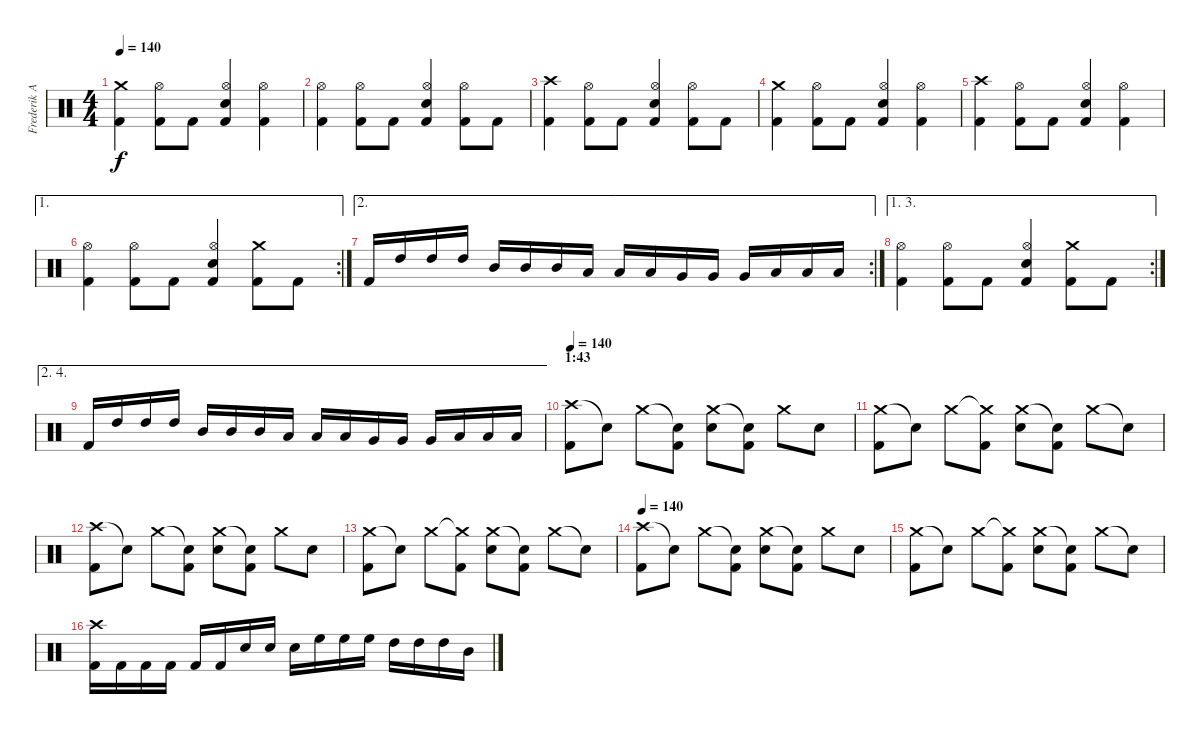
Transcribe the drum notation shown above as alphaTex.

\track ("Frederik Anderson" "Frederik A") {instrument percussion}
\staff {score}
\articulation defaults
\ts (4 4)
\tempo 140
\clef neutral
\ks c
("Crash medium (hit)" "Kick (hit) 2").4{dy f} ("Hi-Hat (open)" "Kick (hit) 2").8 "Kick (hit) 2".8 ("Hi-Hat (open)" "Electric Snare (hit)" "Kick (hit) 2").4 ("Hi-Hat (open)" "Kick (hit) 2").4 |
("Hi-Hat (open)" "Kick (hit) 2").4 ("Hi-Hat (open)" "Kick (hit) 2").8 "Kick (hit) 2".8 ("Hi-Hat (open)" "Electric Snare (hit)" "Kick (hit) 2").4 ("Hi-Hat (open)" "Kick (hit) 2").8 "Kick (hit) 2".8 |
("Crash high (hit)" "Kick (hit) 2").4 ("Hi-Hat (open)" "Kick (hit) 2").8 "Kick (hit) 2".8 ("Hi-Hat (open)" "Electric Snare (hit)" "Kick (hit) 2").4 ("Hi-Hat (open)" "Kick (hit) 2").8 "Kick (hit) 2".8 |
("Crash medium (hit)" "Kick (hit) 2").4 ("Hi-Hat (open)" "Kick (hit) 2").8 "Kick (hit) 2".8 ("Hi-Hat (open)" "Electric Snare (hit)" "Kick (hit) 2").4 ("Hi-Hat (open)" "Kick (hit) 2").4 |
("Crash high (hit)" "Kick (hit) 2").4 ("Hi-Hat (open)" "Kick (hit) 2").8 "Kick (hit) 2".8 ("Hi-Hat (open)" "Electric Snare (hit)" "Kick (hit) 2").4 ("Hi-Hat (open)" "Kick (hit) 2").4 |
\ae 1
\rc 2
("Hi-Hat (open)" "Kick (hit) 2").4 ("Hi-Hat (open)" "Kick (hit) 2").8 "Kick (hit) 2".8 ("Hi-Hat (open)" "Electric Snare (hit)" "Kick (hit) 2").4 ("Crash medium (hit)" "Kick (hit) 2").8 "Kick (hit) 2".8 |
\ae 2
\rc 2 "Kick (hit) 2".16 "High Tom (hit)".16 "High Tom (hit)".16 "High Tom (hit)".16 "Mid Tom (hit)".16 "Mid Tom (hit)".16 "Mid Tom (hit)".16 "Low Tom (hit)".16 "Low Tom (hit)".16 "Low Tom (hit)".16 "Very Low Tom (hit)".16 "Very Low Tom (hit)".16 "Very Low Tom (hit)".16 "Low Floor Tom (hit)".16 "Low Floor Tom (hit)".16 "Low Floor Tom (hit)".16
|
\ae (1 3)
\rc 2
("Hi-Hat (open)" "Kick (hit) 2").4 ("Hi-Hat (open)" "Kick (hit) 2").8 "Kick (hit) 2".8 ("Hi-Hat (open)" "Electric Snare (hit)" "Kick (hit) 2").4 ("Crash medium (hit)" "Kick (hit) 2").8 "Kick (hit) 2".8 |
\ae (2 4)
"Kick (hit) 2".16 "High Tom (hit)".16 "High Tom (hit)".16 "High Tom (hit)".16 "Mid Tom (hit)".16 "Mid Tom (hit)".16 "Mid Tom (hit)".16 "Low Tom (hit)".16 "Low Tom (hit)".16 "Low Tom (hit)".16 "Very Low Tom (hit)".16 "Very Low Tom (hit)".16 "Very Low Tom (hit)".16 "Low Floor Tom (hit)".16 "Low Floor Tom (hit)".16 "Low Floor Tom (hit)".16 |
\section ("" "1:43")
\tempo 140
("Crash high (hit)" "Kick (hit) 2").8 "Snare (hit)"{t}.8 "Crash medium (hit)".8 ("Snare (hit)"{t} "Kick (hit) 2").8 ("Crash medium (hit)" "Electric Snare (hit)").8 ("Snare (hit)"{t} "Kick (hit) 2").8 "Crash medium (hit)".8 "Electric Snare (hit)".8 |
("Crash medium (hit)" "Kick (hit) 2").8 "Snare (hit)"{t}.8 "Crash medium (hit)".8 ("Crash medium (hit)"{t} "Kick (hit) 2").8 ("Crash medium (hit)" "Electric Snare (hit)").8 ("Snare (hit)"{t} "Kick (hit) 2").8 "Crash medium (hit)".8 "Snare (hit)"{t}.8 |
("Crash high (hit)" "Kick (hit) 2").8 "Snare (hit)"{t}.8 "Crash medium (hit)".8 ("Snare (hit)"{t} "Kick (hit) 2").8 ("Crash medium (hit)" "Electric Snare (hit)").8 ("Snare (hit)"{t} "Kick (hit) 2").8 "Crash medium (hit)".8 "Electric Snare (hit)".8 |
("Crash medium (hit)" "Kick (hit) 2").8 "Snare (hit)"{t}.8 "Crash medium (hit)".8 ("Crash medium (hit)"{t} "Kick (hit) 2").8 ("Crash medium (hit)" "Electric Snare (hit)").8 ("Snare (hit)"{t} "Kick (hit) 2").8 "Crash medium (hit)".8 "Snare (hit)"{t}.8 |
\tempo 140
("Crash high (hit)" "Kick (hit) 2").8 "Snare (hit)"{t}.8 "Crash medium (hit)".8 ("Snare (hit)"{t} "Kick (hit) 2").8 ("Crash medium (hit)" "Electric Snare (hit)").8 ("Snare (hit)"{t} "Kick (hit) 2").8 "Crash medium (hit)".8 "Electric Snare (hit)".8 |
("Crash medium (hit)" "Kick (hit) 2").8 "Snare (hit)"{t}.8 "Crash medium (hit)".8 ("Crash medium (hit)"{t} "Kick (hit) 2").8 ("Crash medium (hit)" "Electric Snare (hit)").8 ("Snare (hit)"{t} "Kick (hit) 2").8 "Crash medium (hit)".8 "Snare (hit)"{t}.8 |
("Crash high (hit)" "Kick (hit) 2").16 "Kick (hit) 2".16 "Kick (hit) 2".16 "Kick (hit) 2".16 "Kick (hit) 2".16 "Kick (hit) 2".16 "Electric Snare (hit)".16 "Electric Snare (hit)".16 "Electric Snare (hit)".16 "High Floor Tom (hit)".16 "High Floor Tom (hit)".16 "High Floor Tom (hit)".16 "High Tom (hit)".16 "High Tom (hit)".16 "High Tom (hit)".16 "Mid Tom (hit)".16
